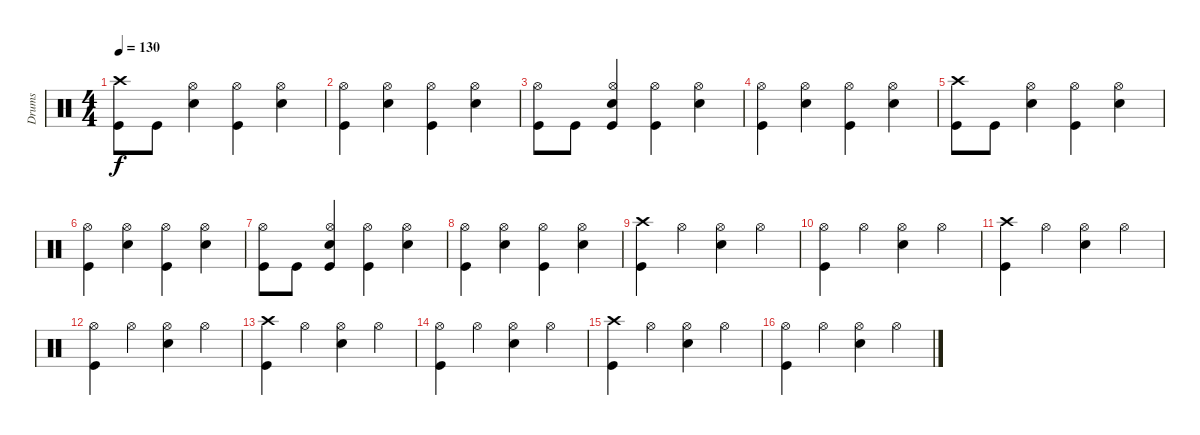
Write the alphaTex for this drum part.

\track ("Drums" "Drums") {instrument percussion}
\staff {score}
\articulation defaults
\ts (4 4)
\tempo 130
\clef neutral
\ks c
("Crash high (hit)" "Kick (hit)").8{dy f} "Kick (hit)".8 ("Hi-Hat (open)" "Snare (hit) 2").4 ("Hi-Hat (open)" "Kick (hit)").4 ("Hi-Hat (open)" "Snare (hit) 2").4 |
("Hi-Hat (open)" "Kick (hit)").4 ("Hi-Hat (open)" "Snare (hit) 2").4 ("Hi-Hat (open)" "Kick (hit)").4 ("Hi-Hat (open)" "Snare (hit) 2").4 |
("Hi-Hat (open)" "Kick (hit)").8 "Kick (hit)".8 ("Hi-Hat (open)" "Snare (hit) 2" "Kick (hit)").4 ("Hi-Hat (open)" "Kick (hit)").4 ("Hi-Hat (open)" "Snare (hit) 2").4 |
("Hi-Hat (open)" "Kick (hit)").4 ("Hi-Hat (open)" "Snare (hit) 2").4 ("Hi-Hat (open)" "Kick (hit)").4 ("Hi-Hat (open)" "Snare (hit) 2").4 |
("Crash high (hit)" "Kick (hit)").8 "Kick (hit)".8 ("Hi-Hat (open)" "Snare (hit) 2").4 ("Hi-Hat (open)" "Kick (hit)").4 ("Hi-Hat (open)" "Snare (hit) 2").4 |
("Hi-Hat (open)" "Kick (hit)").4 ("Hi-Hat (open)" "Snare (hit) 2").4 ("Hi-Hat (open)" "Kick (hit)").4 ("Hi-Hat (open)" "Snare (hit) 2").4 |
("Hi-Hat (open)" "Kick (hit)").8 "Kick (hit)".8 ("Hi-Hat (open)" "Snare (hit) 2" "Kick (hit)").4 ("Hi-Hat (open)" "Kick (hit)").4 ("Hi-Hat (open)" "Snare (hit) 2").4 |
("Hi-Hat (open)" "Kick (hit)").4 ("Hi-Hat (open)" "Snare (hit) 2").4 ("Hi-Hat (open)" "Kick (hit)").4 ("Hi-Hat (open)" "Snare (hit) 2").4 |
("Crash high (hit)" "Kick (hit)").4 "Hi-Hat (open)".4 ("Hi-Hat (open)" "Snare (hit) 2").4 "Hi-Hat (open)".4 |
("Hi-Hat (open)" "Kick (hit)").4 "Hi-Hat (open)".4 ("Hi-Hat (open)" "Snare (hit) 2").4 "Hi-Hat (open)".4 |
("Crash high (hit)" "Kick (hit)").4 "Hi-Hat (open)".4 ("Hi-Hat (open)" "Snare (hit) 2").4 "Hi-Hat (open)".4 |
("Hi-Hat (open)" "Kick (hit)").4 "Hi-Hat (open)".4 ("Hi-Hat (open)" "Snare (hit) 2").4 "Hi-Hat (open)".4 |
("Crash high (hit)" "Kick (hit)").4 "Hi-Hat (open)".4 ("Hi-Hat (open)" "Snare (hit) 2").4 "Hi-Hat (open)".4 |
("Hi-Hat (open)" "Kick (hit)").4 "Hi-Hat (open)".4 ("Hi-Hat (open)" "Snare (hit) 2").4 "Hi-Hat (open)".4 |
("Crash high (hit)" "Kick (hit)").4 "Hi-Hat (open)".4 ("Hi-Hat (open)" "Snare (hit) 2").4 "Hi-Hat (open)".4 |
("Hi-Hat (open)" "Kick (hit)").4 "Hi-Hat (open)".4 ("Hi-Hat (open)" "Snare (hit) 2").4 "Hi-Hat (open)".4
